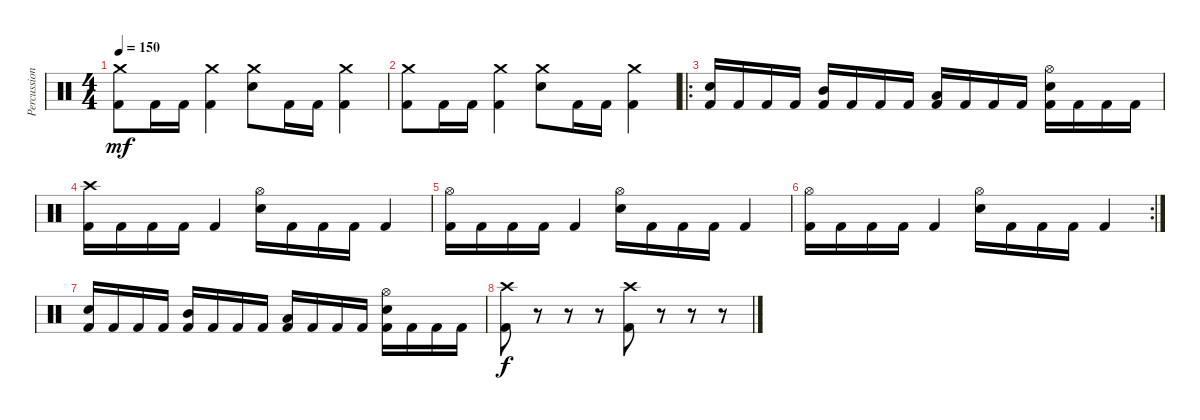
\track ("Percussion" "Percussion") {instrument percussion}
\staff {score}
\articulation defaults
\ts (4 4)
\tempo 150
\clef neutral
\ks c
("Crash medium (hit)" "Kick (hit) 2").8{dy mf} "Kick (hit) 2".16 "Kick (hit) 2".16 ("Crash medium (hit)" "Kick (hit) 2").4 ("Crash medium (hit)" "Snare (hit) 2").8 "Kick (hit) 2".16 "Kick (hit) 2".16 ("Crash medium (hit)" "Kick (hit) 2").4 |
("Crash medium (hit)" "Kick (hit) 2").8 "Kick (hit) 2".16 "Kick (hit) 2".16 ("Crash medium (hit)" "Kick (hit) 2").4 ("Crash medium (hit)" "Snare (hit) 2").8 "Kick (hit) 2".16 "Kick (hit) 2".16 ("Crash medium (hit)" "Kick (hit) 2").4 |
\ro
("Snare (hit) 2" "Kick (hit) 2").16 "Kick (hit) 2".16 "Kick (hit) 2".16 "Kick (hit) 2".16 ("Mid Tom (hit)" "Kick (hit) 2").16 "Kick (hit) 2".16 "Kick (hit) 2".16 "Kick (hit) 2".16 ("Low Tom (hit)" "Kick (hit) 2").16 "Kick (hit) 2".16 "Kick (hit) 2".16 "Kick (hit) 2".16 ("Hi-Hat (open)" "Snare (hit) 2" "Kick (hit) 2").16 "Kick (hit) 2".16 "Kick (hit) 2".16 "Kick (hit) 2".16 |
("Crash high (hit)" "Kick (hit) 2").16 "Kick (hit) 2".16 "Kick (hit) 2".16 "Kick (hit) 2".16 "Kick (hit) 2".4 ("Hi-Hat (open)" "Snare (hit) 2").16 "Kick (hit) 2".16 "Kick (hit) 2".16 "Kick (hit) 2".16 "Kick (hit) 2".4 |
("Hi-Hat (open)" "Kick (hit) 2").16 "Kick (hit) 2".16 "Kick (hit) 2".16 "Kick (hit) 2".16 "Kick (hit) 2".4 ("Hi-Hat (open)" "Snare (hit) 2").16 "Kick (hit) 2".16 "Kick (hit) 2".16 "Kick (hit) 2".16 "Kick (hit) 2".4 |
\rc 2
("Hi-Hat (open)" "Kick (hit) 2").16 "Kick (hit) 2".16 "Kick (hit) 2".16 "Kick (hit) 2".16 "Kick (hit) 2".4 ("Hi-Hat (open)" "Snare (hit) 2").16 "Kick (hit) 2".16 "Kick (hit) 2".16 "Kick (hit) 2".16 "Kick (hit) 2".4 |
("Snare (hit) 2" "Kick (hit) 2").16 "Kick (hit) 2".16 "Kick (hit) 2".16 "Kick (hit) 2".16 ("Mid Tom (hit)" "Kick (hit) 2").16 "Kick (hit) 2".16 "Kick (hit) 2".16 "Kick (hit) 2".16 ("Low Tom (hit)" "Kick (hit) 2").16 "Kick (hit) 2".16 "Kick (hit) 2".16 "Kick (hit) 2".16 ("Hi-Hat (open)" "Snare (hit) 2" "Kick (hit) 2").16 "Kick (hit) 2".16 "Kick (hit) 2".16 "Kick (hit) 2".16 |
("Crash high (hit)" "Kick (hit) 2").8{dy f} r.8 r.8 r.8 ("Crash high (hit)" "Kick (hit) 2").8 r.8 r.8 r.8
